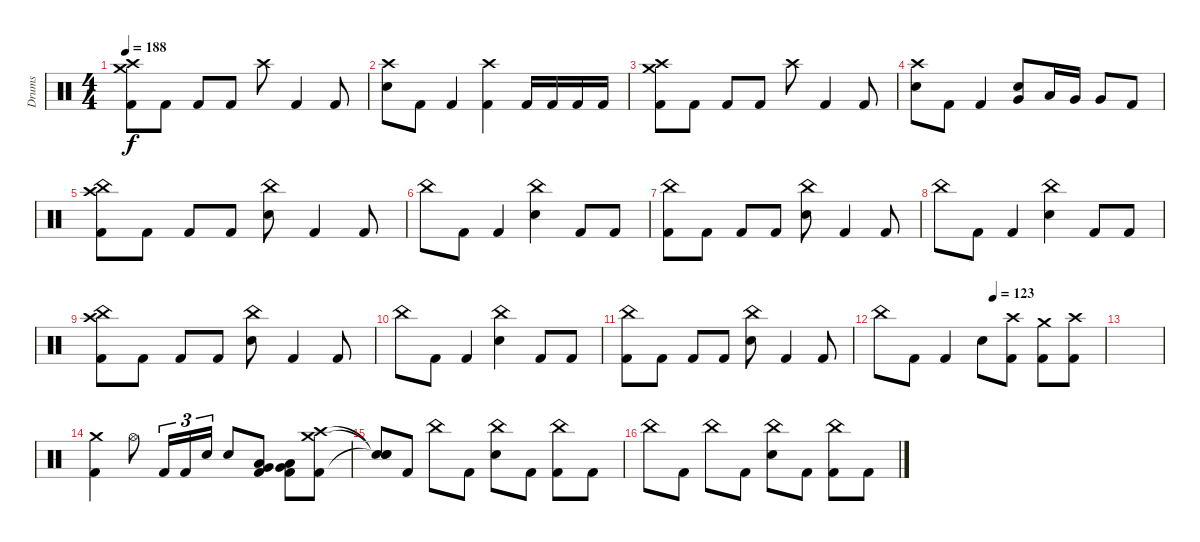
\track ("Drums" "Drums") {instrument percussion}
\staff {score}
\articulation defaults
\ts (4 4)
\tempo 188
\clef neutral
\ks c
("Crash high (hit)" "Crash medium (hit)" "Kick (hit) 2").8{dy f} "Kick (hit) 2".8 "Kick (hit) 2".8 "Kick (hit) 2".8 "Crash high (hit)".8 "Kick (hit) 2".4 "Kick (hit) 2".8 |
("Crash high (hit)" "Electric Snare (hit)").8 "Kick (hit) 2".8 "Kick (hit) 2".4 ("Crash high (hit)" "Kick (hit) 2").4 "Kick (hit) 2".16 "Kick (hit) 2".16 "Kick (hit) 2".16 "Kick (hit) 2".16 |
("Crash high (hit)" "Crash medium (hit)" "Kick (hit) 2").8 "Kick (hit) 2".8 "Kick (hit) 2".8 "Kick (hit) 2".8 "Crash high (hit)".8 "Kick (hit) 2".4 "Kick (hit) 2".8 |
("Crash high (hit)" "Electric Snare (hit)").8 "Kick (hit) 2".8 "Kick (hit) 2".4 ("Very Low Tom (hit)" "Electric Snare (hit)").8 "Low Tom (hit)".16 "Very Low Tom (hit)".16 "Very Low Tom (hit)".8 "Kick (hit) 2".8 |
("China (hit)" "Crash high (hit)" "Kick (hit) 2").8 "Kick (hit) 2".8 "Kick (hit) 2".8 "Kick (hit) 2".8 ("China (hit)" "Electric Snare (hit)").8 "Kick (hit) 2".4 "Kick (hit) 2".8 |
"China (hit)".8 "Kick (hit) 2".8 "Kick (hit) 2".4 ("China (hit)" "Electric Snare (hit)").4 "Kick (hit) 2".8 "Kick (hit) 2".8 |
("China (hit)" "Kick (hit) 2").8 "Kick (hit) 2".8 "Kick (hit) 2".8 "Kick (hit) 2".8 ("China (hit)" "Electric Snare (hit)").8 "Kick (hit) 2".4 "Kick (hit) 2".8 |
"China (hit)".8 "Kick (hit) 2".8 "Kick (hit) 2".4 ("China (hit)" "Electric Snare (hit)").4 "Kick (hit) 2".8 "Kick (hit) 2".8 |
("China (hit)" "Crash high (hit)" "Kick (hit) 2").8 "Kick (hit) 2".8 "Kick (hit) 2".8 "Kick (hit) 2".8 ("China (hit)" "Electric Snare (hit)").8 "Kick (hit) 2".4 "Kick (hit) 2".8 |
"China (hit)".8 "Kick (hit) 2".8 "Kick (hit) 2".4 ("China (hit)" "Electric Snare (hit)").4 "Kick (hit) 2".8 "Kick (hit) 2".8 |
("China (hit)" "Kick (hit) 2").8 "Kick (hit) 2".8 "Kick (hit) 2".8 "Kick (hit) 2".8 ("China (hit)" "Electric Snare (hit)").8 "Kick (hit) 2".4 "Kick (hit) 2".8 |
\tempo (123 0.5)
"China (hit)".8 "Kick (hit) 2".8 "Kick (hit) 2".4 "Electric Snare (hit)".8 ("Crash high (hit)" "Kick (hit) 2").8 ("Crash medium (hit)" "Kick (hit) 2").8 ("Crash high (hit)" "Kick (hit) 2").8 |
|
("Crash medium (hit)" "Kick (hit) 2").4 "Hi-Hat (open)".8 "Kick (hit) 2".16{tu (3 2)} "Kick (hit) 2".16{tu (3 2)} "Electric Snare (hit)".16{tu (3 2)} "Electric Snare (hit)".8 ("Very Low Tom (hit)" "Low Tom (hit)" "Kick (hit) 2").8 ("Very Low Tom (hit)" "Low Tom (hit)" "Kick (hit) 2").8 ("Crash high (hit)" "Crash medium (hit)" "Kick (hit) 2").8 |
("Snare (hit)"{t} "Snare (hit)"{t} "Snare (hit)"{t}).8 "Kick (hit) 2".8 "China (hit)".8 "Kick (hit) 2".8 ("China (hit)" "Electric Snare (hit)").8 "Kick (hit) 2".8 ("China (hit)" "Kick (hit) 2").8 "Kick (hit) 2".8 |
"China (hit)".8 "Kick (hit) 2".8 "China (hit)".8 "Kick (hit) 2".8 ("China (hit)" "Electric Snare (hit)").8 "Kick (hit) 2".8 ("China (hit)" "Kick (hit) 2").8 "Kick (hit) 2".8
